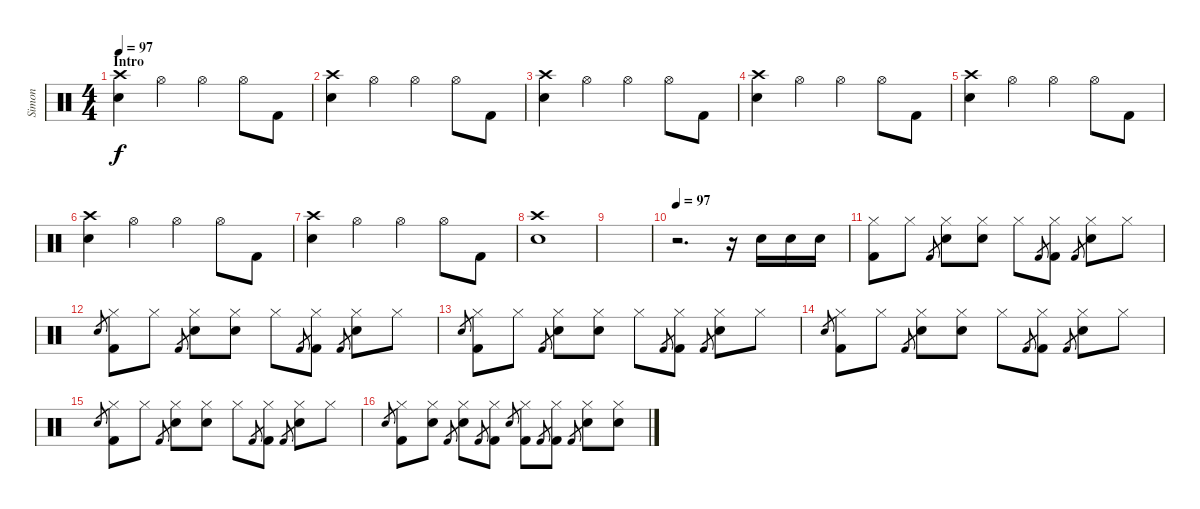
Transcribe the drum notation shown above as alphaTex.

\track ("Simon" "Simon") {instrument percussion}
\staff {score}
\articulation defaults
\ts (4 4)
\section ("" "Intro")
\tempo 97
\tempo 120
\tempo 97
\clef neutral
\ks c
("Crash high (hit)" "Electric Snare (hit)").4{dy f} "Hi-Hat (open)".4 "Hi-Hat (open)".4 "Hi-Hat (open)".8 "Kick (hit) 2".8 |
("Crash high (hit)" "Electric Snare (hit)").4 "Hi-Hat (open)".4 "Hi-Hat (open)".4 "Hi-Hat (open)".8 "Kick (hit) 2".8 |
("Crash high (hit)" "Electric Snare (hit)").4 "Hi-Hat (open)".4 "Hi-Hat (open)".4 "Hi-Hat (open)".8 "Kick (hit) 2".8 |
("Crash high (hit)" "Electric Snare (hit)").4 "Hi-Hat (open)".4 "Hi-Hat (open)".4 "Hi-Hat (open)".8 "Kick (hit) 2".8 |
("Crash high (hit)" "Electric Snare (hit)").4 "Hi-Hat (open)".4 "Hi-Hat (open)".4 "Hi-Hat (open)".8 "Kick (hit) 2".8 |
("Crash high (hit)" "Electric Snare (hit)").4 "Hi-Hat (open)".4 "Hi-Hat (open)".4 "Hi-Hat (open)".8 "Kick (hit) 2".8 |
("Crash high (hit)" "Electric Snare (hit)").4 "Hi-Hat (open)".4 "Hi-Hat (open)".4 "Hi-Hat (open)".8 "Kick (hit) 2".8 |
("Crash high (hit)" "Electric Snare (hit)").1 |
|
\tempo 97
r.2{d} r.16 "Electric Snare (hit)".16 "Electric Snare (hit)".16 "Electric Snare (hit)".16 |
("Hi-Hat (closed)" "Kick (hit) 2").8 "Hi-Hat (closed)".8 "Kick (hit) 2".8{gr} ("Hi-Hat (closed)" "Electric Snare (hit)").8 ("Hi-Hat (closed)" "Electric Snare (hit)").8 "Hi-Hat (closed)".8 "Kick (hit) 2".8{gr} ("Hi-Hat (closed)" "Kick (hit) 2").8 "Kick (hit) 2".8{gr} ("Hi-Hat (closed)" "Electric Snare (hit)").8 "Hi-Hat (closed)".8 |
"Electric Snare (hit)".8{gr} ("Hi-Hat (closed)" "Kick (hit) 2").8 "Hi-Hat (closed)".8 "Kick (hit) 2".8{gr} ("Hi-Hat (closed)" "Electric Snare (hit)").8 ("Hi-Hat (closed)" "Electric Snare (hit)").8 "Hi-Hat (closed)".8 "Kick (hit) 2".8{gr} ("Hi-Hat (closed)" "Kick (hit) 2").8 "Kick (hit) 2".8{gr} ("Hi-Hat (closed)" "Electric Snare (hit)").8 "Hi-Hat (closed)".8 |
"Electric Snare (hit)".8{gr} ("Hi-Hat (closed)" "Kick (hit) 2").8 "Hi-Hat (closed)".8 "Kick (hit) 2".8{gr} ("Hi-Hat (closed)" "Electric Snare (hit)").8 ("Hi-Hat (closed)" "Electric Snare (hit)").8 "Hi-Hat (closed)".8 "Kick (hit) 2".8{gr} ("Hi-Hat (closed)" "Kick (hit) 2").8 "Kick (hit) 2".8{gr} ("Hi-Hat (closed)" "Electric Snare (hit)").8 "Hi-Hat (closed)".8 |
"Electric Snare (hit)".8{gr} ("Hi-Hat (closed)" "Kick (hit) 2").8 "Hi-Hat (closed)".8 "Kick (hit) 2".8{gr} ("Hi-Hat (closed)" "Electric Snare (hit)").8 ("Hi-Hat (closed)" "Electric Snare (hit)").8 "Hi-Hat (closed)".8 "Kick (hit) 2".8{gr} ("Hi-Hat (closed)" "Kick (hit) 2").8 "Kick (hit) 2".8{gr} ("Hi-Hat (closed)" "Electric Snare (hit)").8 "Hi-Hat (closed)".8 |
"Electric Snare (hit)".8{gr} ("Hi-Hat (closed)" "Kick (hit) 2").8 "Hi-Hat (closed)".8 "Kick (hit) 2".8{gr} ("Hi-Hat (closed)" "Electric Snare (hit)").8 ("Hi-Hat (closed)" "Electric Snare (hit)").8 "Hi-Hat (closed)".8 "Kick (hit) 2".8{gr} ("Hi-Hat (closed)" "Kick (hit) 2").8 "Kick (hit) 2".8{gr} ("Hi-Hat (closed)" "Electric Snare (hit)").8 "Hi-Hat (closed)".8 |
"Electric Snare (hit)".8{gr} ("Hi-Hat (closed)" "Kick (hit) 2").8 ("Hi-Hat (closed)" "Electric Snare (hit)").8 "Kick (hit) 2".8{gr} ("Hi-Hat (closed)" "Electric Snare (hit)").8 "Kick (hit) 2".8{gr} ("Hi-Hat (closed)" "Kick (hit) 2").8 "Electric Snare (hit)".8{gr} ("Hi-Hat (closed)" "Kick (hit) 2").8 "Kick (hit) 2".8{gr} ("Hi-Hat (closed)" "Kick (hit) 2").8 "Kick (hit) 2".8{gr} ("Hi-Hat (closed)" "Electric Snare (hit)").8 ("Hi-Hat (closed)" "Electric Snare (hit)").8
